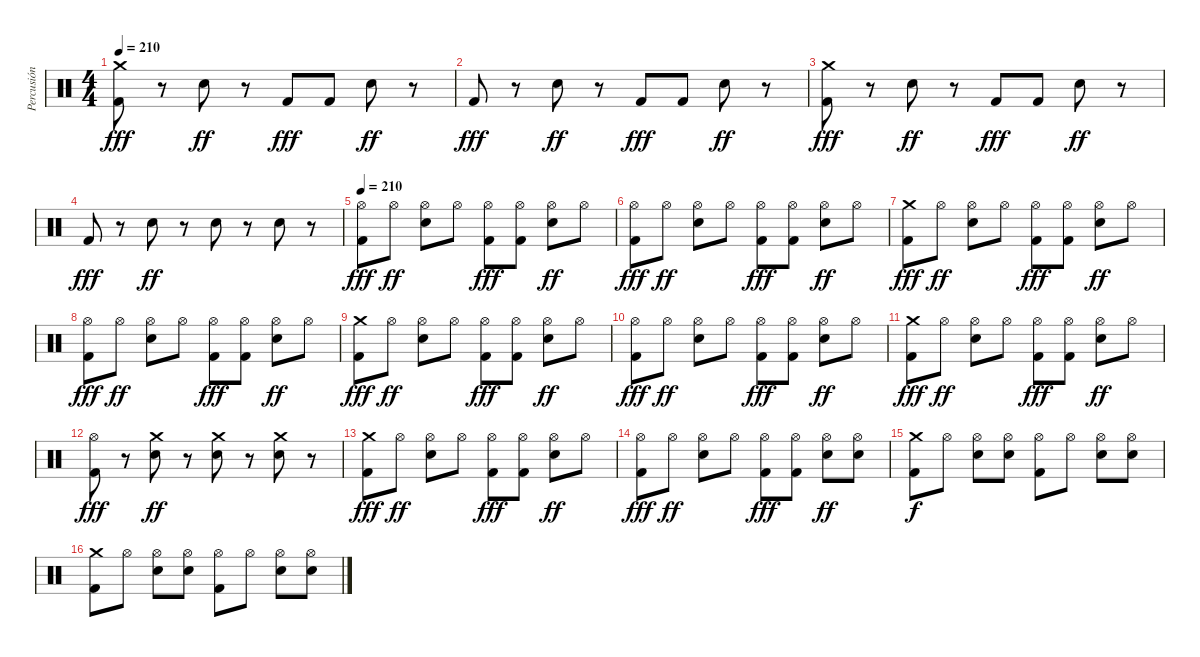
\track ("Percusión" "Percusión") {instrument percussion}
\staff {score}
\articulation defaults
\ts (4 4)
\tempo 210
\clef neutral
\ks c
("Crash medium (hit)" "Kick (hit) 2").8{dy fff} r.8 "Electric Snare (hit)".8{dy ff} r.8 "Kick (hit) 2".8{dy fff} "Kick (hit) 2".8 "Electric Snare (hit)".8{dy ff} r.8 |
"Kick (hit) 2".8{dy fff} r.8 "Electric Snare (hit)".8{dy ff} r.8 "Kick (hit) 2".8{dy fff} "Kick (hit) 2".8 "Electric Snare (hit)".8{dy ff} r.8 |
("Crash medium (hit)" "Kick (hit) 2").8{dy fff} r.8 "Electric Snare (hit)".8{dy ff} r.8 "Kick (hit) 2".8{dy fff} "Kick (hit) 2".8 "Electric Snare (hit)".8{dy ff} r.8 |
"Kick (hit) 2".8{dy fff} r.8 "Electric Snare (hit)".8{dy ff} r.8 "Electric Snare (hit)".8 r.8 "Electric Snare (hit)".8 r.8 |
\tempo 700
\tempo 210
("Hi-Hat (open)" "Kick (hit) 2").8{dy fff} "Hi-Hat (open)".8{dy ff} ("Hi-Hat (open)" "Electric Snare (hit)").8 "Hi-Hat (open)".8 ("Hi-Hat (open)" "Kick (hit) 2").8{dy fff} ("Hi-Hat (open)" "Kick (hit) 2").8 ("Hi-Hat (open)" "Electric Snare (hit)").8{dy ff} "Hi-Hat (open)".8 |
("Hi-Hat (open)" "Kick (hit) 2").8{dy fff} "Hi-Hat (open)".8{dy ff} ("Hi-Hat (open)" "Electric Snare (hit)").8 "Hi-Hat (open)".8 ("Hi-Hat (open)" "Kick (hit) 2").8{dy fff} ("Hi-Hat (open)" "Kick (hit) 2").8 ("Hi-Hat (open)" "Electric Snare (hit)").8{dy ff} "Hi-Hat (open)".8 |
("Crash medium (hit)" "Kick (hit) 2").8{dy fff} "Hi-Hat (open)".8{dy ff} ("Hi-Hat (open)" "Electric Snare (hit)").8 "Hi-Hat (open)".8 ("Hi-Hat (open)" "Kick (hit) 2").8{dy fff} ("Hi-Hat (open)" "Kick (hit) 2").8 ("Hi-Hat (open)" "Electric Snare (hit)").8{dy ff} "Hi-Hat (open)".8 |
("Hi-Hat (open)" "Kick (hit) 2").8{dy fff} "Hi-Hat (open)".8{dy ff} ("Hi-Hat (open)" "Electric Snare (hit)").8 "Hi-Hat (open)".8 ("Hi-Hat (open)" "Kick (hit) 2").8{dy fff} ("Hi-Hat (open)" "Kick (hit) 2").8 ("Hi-Hat (open)" "Electric Snare (hit)").8{dy ff} "Hi-Hat (open)".8 |
("Crash medium (hit)" "Kick (hit) 2").8{dy fff} "Hi-Hat (open)".8{dy ff} ("Hi-Hat (open)" "Electric Snare (hit)").8 "Hi-Hat (open)".8 ("Hi-Hat (open)" "Kick (hit) 2").8{dy fff} ("Hi-Hat (open)" "Kick (hit) 2").8 ("Hi-Hat (open)" "Electric Snare (hit)").8{dy ff} "Hi-Hat (open)".8 |
("Hi-Hat (open)" "Kick (hit) 2").8{dy fff} "Hi-Hat (open)".8{dy ff} ("Hi-Hat (open)" "Electric Snare (hit)").8 "Hi-Hat (open)".8 ("Hi-Hat (open)" "Kick (hit) 2").8{dy fff} ("Hi-Hat (open)" "Kick (hit) 2").8 ("Hi-Hat (open)" "Electric Snare (hit)").8{dy ff} "Hi-Hat (open)".8 |
("Crash medium (hit)" "Kick (hit) 2").8{dy fff} "Hi-Hat (open)".8{dy ff} ("Hi-Hat (open)" "Electric Snare (hit)").8 "Hi-Hat (open)".8 ("Hi-Hat (open)" "Kick (hit) 2").8{dy fff} ("Hi-Hat (open)" "Kick (hit) 2").8 ("Hi-Hat (open)" "Electric Snare (hit)").8{dy ff} "Hi-Hat (open)".8 |
("Hi-Hat (open)" "Kick (hit) 2").8{dy fff} r.8 ("Crash medium (hit)" "Electric Snare (hit)").8{dy ff} r.8 ("Crash medium (hit)" "Electric Snare (hit)").8 r.8 ("Crash medium (hit)" "Electric Snare (hit)").8 r.8 |
("Crash medium (hit)" "Kick (hit) 2").8{dy fff} "Hi-Hat (open)".8{dy ff} ("Hi-Hat (open)" "Electric Snare (hit)").8 "Hi-Hat (open)".8 ("Hi-Hat (open)" "Kick (hit) 2").8{dy fff} ("Hi-Hat (open)" "Kick (hit) 2").8 ("Hi-Hat (open)" "Electric Snare (hit)").8{dy ff} "Hi-Hat (open)".8 |
("Hi-Hat (open)" "Kick (hit) 2").8{dy fff} "Hi-Hat (open)".8{dy ff} ("Hi-Hat (open)" "Electric Snare (hit)").8 "Hi-Hat (open)".8 ("Hi-Hat (open)" "Kick (hit) 2").8{dy fff} ("Hi-Hat (open)" "Kick (hit) 2").8 ("Hi-Hat (open)" "Electric Snare (hit)").8{dy ff} ("Hi-Hat (open)" "Electric Snare (hit)").8 |
("Crash medium (hit)" "Kick (hit) 2").8{dy f} "Hi-Hat (open)".8 ("Hi-Hat (open)" "Electric Snare (hit)").8 ("Hi-Hat (open)" "Electric Snare (hit)").8 ("Hi-Hat (open)" "Kick (hit) 2").8 "Hi-Hat (open)".8 ("Hi-Hat (open)" "Electric Snare (hit)").8 ("Hi-Hat (open)" "Electric Snare (hit)").8 |
("Crash medium (hit)" "Kick (hit) 2").8 "Hi-Hat (open)".8 ("Hi-Hat (open)" "Electric Snare (hit)").8 ("Hi-Hat (open)" "Electric Snare (hit)").8 ("Hi-Hat (open)" "Kick (hit) 2").8 "Hi-Hat (open)".8 ("Hi-Hat (open)" "Electric Snare (hit)").8 ("Hi-Hat (open)" "Electric Snare (hit)").8
